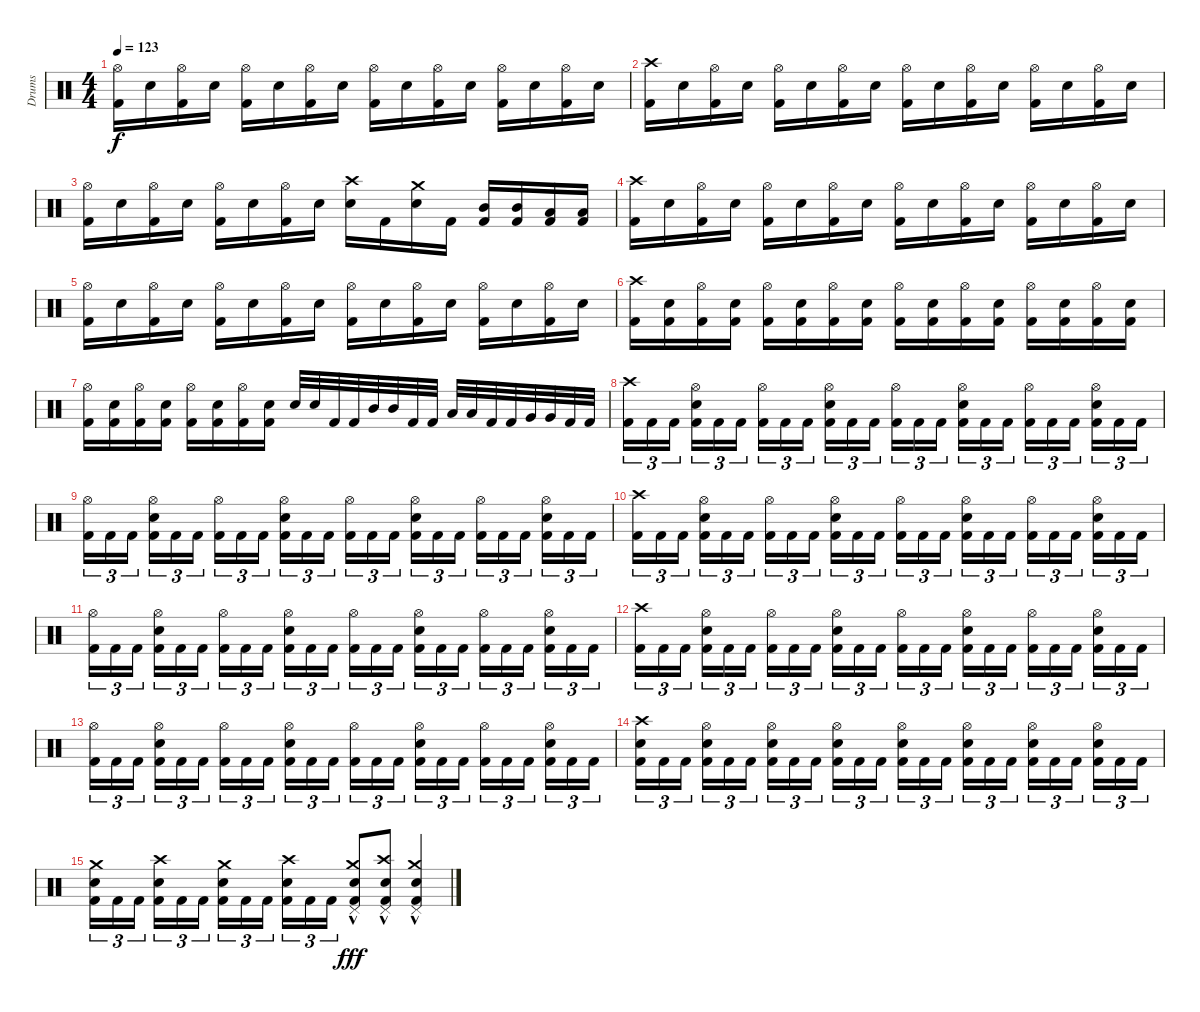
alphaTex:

\track ("Drums" "Drums") {instrument percussion}
\staff {score}
\articulation defaults
\ts (4 4)
\tempo 123
\clef neutral
\ks c
("Hi-Hat (open)" "Kick (hit) 2").16{dy f} "Snare (hit) 2".16 ("Hi-Hat (open)" "Kick (hit) 2").16 "Snare (hit) 2".16 ("Hi-Hat (open)" "Kick (hit) 2").16 "Snare (hit) 2".16 ("Hi-Hat (open)" "Kick (hit) 2").16 "Snare (hit) 2".16 ("Hi-Hat (open)" "Kick (hit) 2").16 "Snare (hit) 2".16 ("Hi-Hat (open)" "Kick (hit) 2").16 "Snare (hit) 2".16 ("Hi-Hat (open)" "Kick (hit) 2").16 "Snare (hit) 2".16 ("Hi-Hat (open)" "Kick (hit) 2").16 "Snare (hit) 2".16 |
("Crash high (hit)" "Kick (hit) 2").16 "Snare (hit) 2".16 ("Hi-Hat (open)" "Kick (hit) 2").16 "Snare (hit) 2".16 ("Hi-Hat (open)" "Kick (hit) 2").16 "Snare (hit) 2".16 ("Hi-Hat (open)" "Kick (hit) 2").16 "Snare (hit) 2".16 ("Hi-Hat (open)" "Kick (hit) 2").16 "Snare (hit) 2".16 ("Hi-Hat (open)" "Kick (hit) 2").16 "Snare (hit) 2".16 ("Hi-Hat (open)" "Kick (hit) 2").16 "Snare (hit) 2".16 ("Hi-Hat (open)" "Kick (hit) 2").16 "Snare (hit) 2".16 |
("Hi-Hat (open)" "Kick (hit) 2").16 "Snare (hit) 2".16 ("Hi-Hat (open)" "Kick (hit) 2").16 "Snare (hit) 2".16 ("Hi-Hat (open)" "Kick (hit) 2").16 "Snare (hit) 2".16 ("Hi-Hat (open)" "Kick (hit) 2").16 "Snare (hit) 2".16 ("Crash high (hit)" "Snare (hit) 2").16 "Kick (hit) 2".16 ("Crash medium (hit)" "Snare (hit) 2").16 "Kick (hit) 2".16 ("Mid Tom (hit)" "Kick (hit) 2").16 ("Mid Tom (hit)" "Kick (hit) 2").16 ("Low Tom (hit)" "Kick (hit) 2").16 ("Low Tom (hit)" "Kick (hit) 2").16 |
("Crash high (hit)" "Kick (hit) 2").16 "Snare (hit) 2".16 ("Hi-Hat (open)" "Kick (hit) 2").16 "Snare (hit) 2".16 ("Hi-Hat (open)" "Kick (hit) 2").16 "Snare (hit) 2".16 ("Hi-Hat (open)" "Kick (hit) 2").16 "Snare (hit) 2".16 ("Hi-Hat (open)" "Kick (hit) 2").16 "Snare (hit) 2".16 ("Hi-Hat (open)" "Kick (hit) 2").16 "Snare (hit) 2".16 ("Hi-Hat (open)" "Kick (hit) 2").16 "Snare (hit) 2".16 ("Hi-Hat (open)" "Kick (hit) 2").16 "Snare (hit) 2".16 |
("Hi-Hat (open)" "Kick (hit) 2").16 "Snare (hit) 2".16 ("Hi-Hat (open)" "Kick (hit) 2").16 "Snare (hit) 2".16 ("Hi-Hat (open)" "Kick (hit) 2").16 "Snare (hit) 2".16 ("Hi-Hat (open)" "Kick (hit) 2").16 "Snare (hit) 2".16 ("Hi-Hat (open)" "Kick (hit) 2").16 "Snare (hit) 2".16 ("Hi-Hat (open)" "Kick (hit) 2").16 "Snare (hit) 2".16 ("Hi-Hat (open)" "Kick (hit) 2").16 "Snare (hit) 2".16 ("Hi-Hat (open)" "Kick (hit) 2").16 "Snare (hit) 2".16 |
("Crash high (hit)" "Kick (hit) 2").16 ("Snare (hit) 2" "Kick (hit) 2").16 ("Hi-Hat (open)" "Kick (hit) 2").16 ("Snare (hit) 2" "Kick (hit) 2").16 ("Hi-Hat (open)" "Kick (hit) 2").16 ("Snare (hit) 2" "Kick (hit) 2").16 ("Hi-Hat (open)" "Kick (hit) 2").16 ("Snare (hit) 2" "Kick (hit) 2").16 ("Hi-Hat (open)" "Kick (hit) 2").16 ("Snare (hit) 2" "Kick (hit) 2").16 ("Hi-Hat (open)" "Kick (hit) 2").16 ("Snare (hit) 2" "Kick (hit) 2").16 ("Hi-Hat (open)" "Kick (hit) 2").16 ("Snare (hit) 2" "Kick (hit) 2").16 ("Hi-Hat (open)" "Kick (hit) 2").16 ("Snare (hit) 2" "Kick (hit) 2").16 |
("Hi-Hat (open)" "Kick (hit) 2").16 ("Snare (hit) 2" "Kick (hit) 2").16 ("Hi-Hat (open)" "Kick (hit) 2").16 ("Snare (hit) 2" "Kick (hit) 2").16 ("Hi-Hat (open)" "Kick (hit) 2").16 ("Snare (hit) 2" "Kick (hit) 2").16 ("Hi-Hat (open)" "Kick (hit) 2").16 ("Snare (hit) 2" "Kick (hit) 2").16 "Snare (hit) 2".32 "Snare (hit) 2".32 "Kick (hit) 2".32 "Kick (hit) 2".32 "Mid Tom (hit)".32 "Mid Tom (hit)".32 "Kick (hit) 2".32 "Kick (hit) 2".32 "Low Tom (hit)".32 "Low Tom (hit)".32 "Kick (hit) 2".32 "Kick (hit) 2".32 "Very Low Tom (hit)".32 "Very Low Tom (hit)".32 "Kick (hit) 2".32 "Kick (hit) 2".32 |
("Crash high (hit)" "Kick (hit) 2").16{tu (3 2)} "Kick (hit) 2".16{tu (3 2)} "Kick (hit) 2".16{tu (3 2) beam splitsecondary} ("Hi-Hat (open)" "Snare (hit) 2" "Kick (hit) 2").16{tu (3 2)} "Kick (hit) 2".16{tu (3 2)} "Kick (hit) 2".16{tu (3 2)} ("Hi-Hat (open)" "Kick (hit) 2").16{tu (3 2)} "Kick (hit) 2".16{tu (3 2)} "Kick (hit) 2".16{tu (3 2) beam splitsecondary} ("Hi-Hat (open)" "Snare (hit) 2" "Kick (hit) 2").16{tu (3 2)} "Kick (hit) 2".16{tu (3 2)} "Kick (hit) 2".16{tu (3 2)} ("Hi-Hat (open)" "Kick (hit) 2").16{tu (3 2)} "Kick (hit) 2".16{tu (3 2)} "Kick (hit) 2".16{tu (3 2) beam splitsecondary} ("Hi-Hat (open)" "Snare (hit) 2" "Kick (hit) 2").16{tu (3 2)} "Kick (hit) 2".16{tu (3 2)} "Kick (hit) 2".16{tu (3 2)} ("Hi-Hat (open)" "Kick (hit) 2").16{tu (3 2)} "Kick (hit) 2".16{tu (3 2)} "Kick (hit) 2".16{tu (3 2) beam splitsecondary} ("Hi-Hat (open)" "Snare (hit) 2" "Kick (hit) 2").16{tu (3 2)} "Kick (hit) 2".16{tu (3 2)} "Kick (hit) 2".16{tu (3 2)} |
("Hi-Hat (open)" "Kick (hit) 2").16{tu (3 2)} "Kick (hit) 2".16{tu (3 2)} "Kick (hit) 2".16{tu (3 2) beam splitsecondary} ("Hi-Hat (open)" "Snare (hit) 2" "Kick (hit) 2").16{tu (3 2)} "Kick (hit) 2".16{tu (3 2)} "Kick (hit) 2".16{tu (3 2)} ("Hi-Hat (open)" "Kick (hit) 2").16{tu (3 2)} "Kick (hit) 2".16{tu (3 2)} "Kick (hit) 2".16{tu (3 2) beam splitsecondary} ("Hi-Hat (open)" "Snare (hit) 2" "Kick (hit) 2").16{tu (3 2)} "Kick (hit) 2".16{tu (3 2)} "Kick (hit) 2".16{tu (3 2)} ("Hi-Hat (open)" "Kick (hit) 2").16{tu (3 2)} "Kick (hit) 2".16{tu (3 2)} "Kick (hit) 2".16{tu (3 2) beam splitsecondary} ("Hi-Hat (open)" "Snare (hit) 2" "Kick (hit) 2").16{tu (3 2)} "Kick (hit) 2".16{tu (3 2)} "Kick (hit) 2".16{tu (3 2)} ("Hi-Hat (open)" "Kick (hit) 2").16{tu (3 2)} "Kick (hit) 2".16{tu (3 2)} "Kick (hit) 2".16{tu (3 2) beam splitsecondary} ("Hi-Hat (open)" "Snare (hit) 2" "Kick (hit) 2").16{tu (3 2)} "Kick (hit) 2".16{tu (3 2)} "Kick (hit) 2".16{tu (3 2)} |
("Crash high (hit)" "Kick (hit) 2").16{tu (3 2)} "Kick (hit) 2".16{tu (3 2)} "Kick (hit) 2".16{tu (3 2) beam splitsecondary} ("Hi-Hat (open)" "Snare (hit) 2" "Kick (hit) 2").16{tu (3 2)} "Kick (hit) 2".16{tu (3 2)} "Kick (hit) 2".16{tu (3 2)} ("Hi-Hat (open)" "Kick (hit) 2").16{tu (3 2)} "Kick (hit) 2".16{tu (3 2)} "Kick (hit) 2".16{tu (3 2) beam splitsecondary} ("Hi-Hat (open)" "Snare (hit) 2" "Kick (hit) 2").16{tu (3 2)} "Kick (hit) 2".16{tu (3 2)} "Kick (hit) 2".16{tu (3 2)} ("Hi-Hat (open)" "Kick (hit) 2").16{tu (3 2)} "Kick (hit) 2".16{tu (3 2)} "Kick (hit) 2".16{tu (3 2) beam splitsecondary} ("Hi-Hat (open)" "Snare (hit) 2" "Kick (hit) 2").16{tu (3 2)} "Kick (hit) 2".16{tu (3 2)} "Kick (hit) 2".16{tu (3 2)} ("Hi-Hat (open)" "Kick (hit) 2").16{tu (3 2)} "Kick (hit) 2".16{tu (3 2)} "Kick (hit) 2".16{tu (3 2) beam splitsecondary} ("Hi-Hat (open)" "Snare (hit) 2" "Kick (hit) 2").16{tu (3 2)} "Kick (hit) 2".16{tu (3 2)} "Kick (hit) 2".16{tu (3 2)} |
("Hi-Hat (open)" "Kick (hit) 2").16{tu (3 2)} "Kick (hit) 2".16{tu (3 2)} "Kick (hit) 2".16{tu (3 2) beam splitsecondary} ("Hi-Hat (open)" "Snare (hit) 2" "Kick (hit) 2").16{tu (3 2)} "Kick (hit) 2".16{tu (3 2)} "Kick (hit) 2".16{tu (3 2)} ("Hi-Hat (open)" "Kick (hit) 2").16{tu (3 2)} "Kick (hit) 2".16{tu (3 2)} "Kick (hit) 2".16{tu (3 2) beam splitsecondary} ("Hi-Hat (open)" "Snare (hit) 2" "Kick (hit) 2").16{tu (3 2)} "Kick (hit) 2".16{tu (3 2)} "Kick (hit) 2".16{tu (3 2)} ("Hi-Hat (open)" "Kick (hit) 2").16{tu (3 2)} "Kick (hit) 2".16{tu (3 2)} "Kick (hit) 2".16{tu (3 2) beam splitsecondary} ("Hi-Hat (open)" "Snare (hit) 2" "Kick (hit) 2").16{tu (3 2)} "Kick (hit) 2".16{tu (3 2)} "Kick (hit) 2".16{tu (3 2)} ("Hi-Hat (open)" "Kick (hit) 2").16{tu (3 2)} "Kick (hit) 2".16{tu (3 2)} "Kick (hit) 2".16{tu (3 2) beam splitsecondary} ("Hi-Hat (open)" "Snare (hit) 2" "Kick (hit) 2").16{tu (3 2)} "Kick (hit) 2".16{tu (3 2)} "Kick (hit) 2".16{tu (3 2)} |
("Crash high (hit)" "Kick (hit) 2").16{tu (3 2)} "Kick (hit) 2".16{tu (3 2)} "Kick (hit) 2".16{tu (3 2) beam splitsecondary} ("Hi-Hat (open)" "Snare (hit) 2" "Kick (hit) 2").16{tu (3 2)} "Kick (hit) 2".16{tu (3 2)} "Kick (hit) 2".16{tu (3 2)} ("Hi-Hat (open)" "Kick (hit) 2").16{tu (3 2)} "Kick (hit) 2".16{tu (3 2)} "Kick (hit) 2".16{tu (3 2) beam splitsecondary} ("Hi-Hat (open)" "Snare (hit) 2" "Kick (hit) 2").16{tu (3 2)} "Kick (hit) 2".16{tu (3 2)} "Kick (hit) 2".16{tu (3 2)} ("Hi-Hat (open)" "Kick (hit) 2").16{tu (3 2)} "Kick (hit) 2".16{tu (3 2)} "Kick (hit) 2".16{tu (3 2) beam splitsecondary} ("Hi-Hat (open)" "Snare (hit) 2" "Kick (hit) 2").16{tu (3 2)} "Kick (hit) 2".16{tu (3 2)} "Kick (hit) 2".16{tu (3 2)} ("Hi-Hat (open)" "Kick (hit) 2").16{tu (3 2)} "Kick (hit) 2".16{tu (3 2)} "Kick (hit) 2".16{tu (3 2) beam splitsecondary} ("Hi-Hat (open)" "Snare (hit) 2" "Kick (hit) 2").16{tu (3 2)} "Kick (hit) 2".16{tu (3 2)} "Kick (hit) 2".16{tu (3 2)} |
("Hi-Hat (open)" "Kick (hit) 2").16{tu (3 2)} "Kick (hit) 2".16{tu (3 2)} "Kick (hit) 2".16{tu (3 2) beam splitsecondary} ("Hi-Hat (open)" "Snare (hit) 2" "Kick (hit) 2").16{tu (3 2)} "Kick (hit) 2".16{tu (3 2)} "Kick (hit) 2".16{tu (3 2)} ("Hi-Hat (open)" "Kick (hit) 2").16{tu (3 2)} "Kick (hit) 2".16{tu (3 2)} "Kick (hit) 2".16{tu (3 2) beam splitsecondary} ("Hi-Hat (open)" "Snare (hit) 2" "Kick (hit) 2").16{tu (3 2)} "Kick (hit) 2".16{tu (3 2)} "Kick (hit) 2".16{tu (3 2)} ("Hi-Hat (open)" "Kick (hit) 2").16{tu (3 2)} "Kick (hit) 2".16{tu (3 2)} "Kick (hit) 2".16{tu (3 2) beam splitsecondary} ("Hi-Hat (open)" "Snare (hit) 2" "Kick (hit) 2").16{tu (3 2)} "Kick (hit) 2".16{tu (3 2)} "Kick (hit) 2".16{tu (3 2)} ("Hi-Hat (open)" "Kick (hit) 2").16{tu (3 2)} "Kick (hit) 2".16{tu (3 2)} "Kick (hit) 2".16{tu (3 2) beam splitsecondary} ("Hi-Hat (open)" "Snare (hit) 2" "Kick (hit) 2").16{tu (3 2)} "Kick (hit) 2".16{tu (3 2)} "Kick (hit) 2".16{tu (3 2)} |
("Crash high (hit)" "Snare (hit) 2" "Kick (hit) 2").16{tu (3 2)} "Kick (hit) 2".16{tu (3 2)} "Kick (hit) 2".16{tu (3 2) beam splitsecondary} ("Hi-Hat (open)" "Snare (hit) 2" "Kick (hit) 2").16{tu (3 2)} "Kick (hit) 2".16{tu (3 2)} "Kick (hit) 2".16{tu (3 2)} ("Hi-Hat (open)" "Snare (hit) 2" "Kick (hit) 2").16{tu (3 2)} "Kick (hit) 2".16{tu (3 2)} "Kick (hit) 2".16{tu (3 2) beam splitsecondary} ("Hi-Hat (open)" "Snare (hit) 2" "Kick (hit) 2").16{tu (3 2)} "Kick (hit) 2".16{tu (3 2)} "Kick (hit) 2".16{tu (3 2)} ("Hi-Hat (open)" "Snare (hit) 2" "Kick (hit) 2").16{tu (3 2)} "Kick (hit) 2".16{tu (3 2)} "Kick (hit) 2".16{tu (3 2) beam splitsecondary} ("Hi-Hat (open)" "Snare (hit) 2" "Kick (hit) 2").16{tu (3 2)} "Kick (hit) 2".16{tu (3 2)} "Kick (hit) 2".16{tu (3 2)} ("Hi-Hat (open)" "Snare (hit) 2" "Kick (hit) 2").16{tu (3 2)} "Kick (hit) 2".16{tu (3 2)} "Kick (hit) 2".16{tu (3 2) beam splitsecondary} ("Hi-Hat (open)" "Snare (hit) 2" "Kick (hit) 2").16{tu (3 2)} "Kick (hit) 2".16{tu (3 2)} "Kick (hit) 2".16{tu (3 2)} |
("Crash medium (hit)" "Snare (hit) 2" "Kick (hit) 2").16{tu (3 2)} "Kick (hit) 2".16{tu (3 2)} "Kick (hit) 2".16{tu (3 2) beam splitsecondary} ("Crash high (hit)" "Snare (hit) 2" "Kick (hit) 2").16{tu (3 2)} "Kick (hit) 2".16{tu (3 2)} "Kick (hit) 2".16{tu (3 2)} ("Crash medium (hit)" "Snare (hit) 2" "Kick (hit) 2").16{tu (3 2)} "Kick (hit) 2".16{tu (3 2)} "Kick (hit) 2".16{tu (3 2) beam splitsecondary} ("Crash high (hit)" "Snare (hit) 2" "Kick (hit) 2").16{tu (3 2)} "Kick (hit) 2".16{tu (3 2)} "Kick (hit) 2".16{tu (3 2)} ("Crash medium (hit)"{hac} "Pedal Hi-Hat (hit)" "Snare (hit) 2"{hac} "Kick (hit) 2").8{dy fff} ("Crash high (hit)"{hac} "Pedal Hi-Hat (hit)" "Snare (hit) 2"{hac} "Kick (hit) 2").8 ("Crash medium (hit)"{hac} "Pedal Hi-Hat (hit)" "Snare (hit) 2"{hac} "Kick (hit) 2").4
